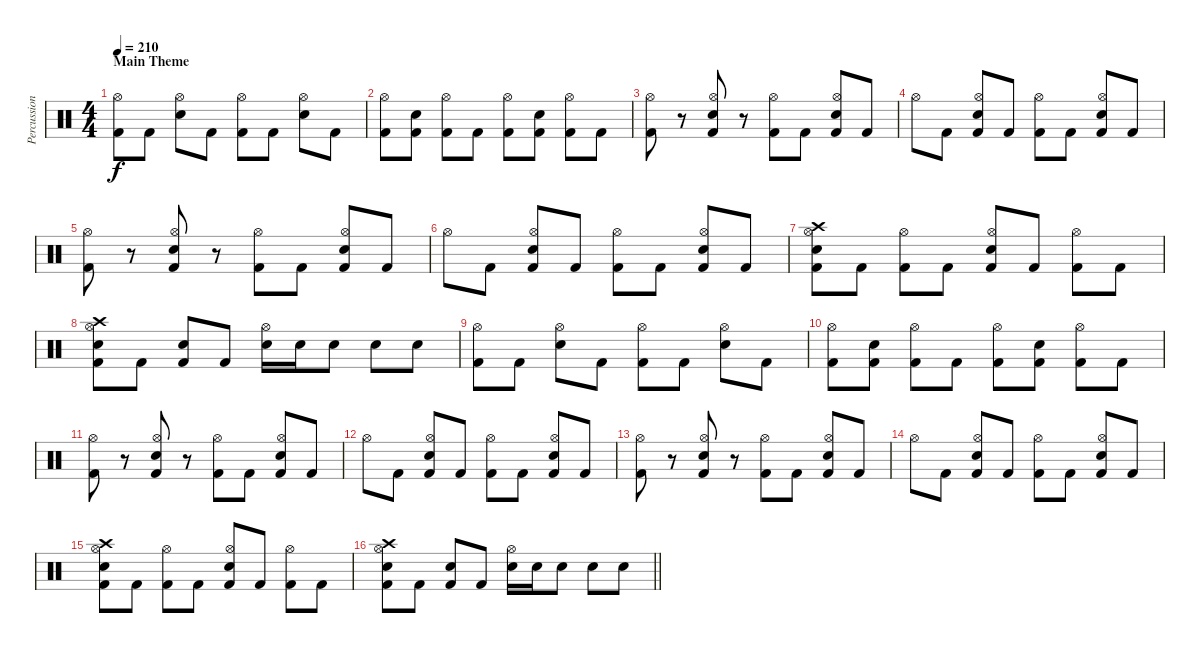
\track ("Percussion" "Percussion") {instrument percussion}
\staff {score}
\articulation defaults
\ts (4 4)
\section ("" "Main Theme")
\tempo 210
\clef neutral
\ks c
("Kick (hit) 2" "Hi-Hat (open)").8{dy f} "Kick (hit) 2".8 ("Electric Snare (hit)" "Hi-Hat (open)").8 "Kick (hit) 2".8 ("Kick (hit) 2" "Hi-Hat (open)").8 "Kick (hit) 2".8 ("Electric Snare (hit)" "Hi-Hat (open)").8 "Kick (hit) 2".8 |
("Kick (hit) 2" "Hi-Hat (open)").8 ("Kick (hit) 2" "Electric Snare (hit)").8 ("Kick (hit) 2" "Hi-Hat (open)").8 "Kick (hit) 2".8 ("Kick (hit) 2" "Hi-Hat (open)").8 ("Kick (hit) 2" "Electric Snare (hit)").8 ("Kick (hit) 2" "Hi-Hat (open)").8 "Kick (hit) 2".8 |
("Kick (hit) 2" "Hi-Hat (open)").8 r.8 ("Kick (hit) 2" "Electric Snare (hit)" "Hi-Hat (open)").8 r.8 ("Kick (hit) 2" "Hi-Hat (open)").8 "Kick (hit) 2".8 ("Kick (hit) 2" "Electric Snare (hit)" "Hi-Hat (open)").8 "Kick (hit) 2".8 |
"Hi-Hat (open)".8 "Kick (hit) 2".8 ("Kick (hit) 2" "Electric Snare (hit)" "Hi-Hat (open)").8 "Kick (hit) 2".8 ("Kick (hit) 2" "Hi-Hat (open)").8 "Kick (hit) 2".8 ("Kick (hit) 2" "Electric Snare (hit)" "Hi-Hat (open)").8 "Kick (hit) 2".8 |
("Kick (hit) 2" "Hi-Hat (open)").8 r.8 ("Kick (hit) 2" "Electric Snare (hit)" "Hi-Hat (open)").8 r.8 ("Kick (hit) 2" "Hi-Hat (open)").8 "Kick (hit) 2".8 ("Kick (hit) 2" "Electric Snare (hit)" "Hi-Hat (open)").8 "Kick (hit) 2".8 |
"Hi-Hat (open)".8 "Kick (hit) 2".8 ("Kick (hit) 2" "Electric Snare (hit)" "Hi-Hat (open)").8 "Kick (hit) 2".8 ("Kick (hit) 2" "Hi-Hat (open)").8 "Kick (hit) 2".8 ("Kick (hit) 2" "Electric Snare (hit)" "Hi-Hat (open)").8 "Kick (hit) 2".8 |
("Kick (hit) 2" "Electric Snare (hit)" "Hi-Hat (open)" "Crash high (hit)").8 "Kick (hit) 2".8 ("Kick (hit) 2" "Hi-Hat (open)").8 "Kick (hit) 2".8 ("Kick (hit) 2" "Electric Snare (hit)" "Hi-Hat (open)").8 "Kick (hit) 2".8 ("Kick (hit) 2" "Hi-Hat (open)").8 "Kick (hit) 2".8 |
("Kick (hit) 2" "Electric Snare (hit)" "Hi-Hat (open)" "Crash high (hit)").8 "Kick (hit) 2".8 ("Kick (hit) 2" "Electric Snare (hit)").8 "Kick (hit) 2".8 ("Electric Snare (hit)" "Hi-Hat (open)").16 "Electric Snare (hit)".16 "Electric Snare (hit)".8 "Electric Snare (hit)".8 "Electric Snare (hit)".8 |
("Kick (hit) 2" "Hi-Hat (open)").8 "Kick (hit) 2".8 ("Electric Snare (hit)" "Hi-Hat (open)").8 "Kick (hit) 2".8 ("Kick (hit) 2" "Hi-Hat (open)").8 "Kick (hit) 2".8 ("Electric Snare (hit)" "Hi-Hat (open)").8 "Kick (hit) 2".8 |
("Kick (hit) 2" "Hi-Hat (open)").8 ("Kick (hit) 2" "Electric Snare (hit)").8 ("Kick (hit) 2" "Hi-Hat (open)").8 "Kick (hit) 2".8 ("Kick (hit) 2" "Hi-Hat (open)").8 ("Kick (hit) 2" "Electric Snare (hit)").8 ("Kick (hit) 2" "Hi-Hat (open)").8 "Kick (hit) 2".8 |
("Kick (hit) 2" "Hi-Hat (open)").8 r.8 ("Kick (hit) 2" "Electric Snare (hit)" "Hi-Hat (open)").8 r.8 ("Kick (hit) 2" "Hi-Hat (open)").8 "Kick (hit) 2".8 ("Kick (hit) 2" "Electric Snare (hit)" "Hi-Hat (open)").8 "Kick (hit) 2".8 |
"Hi-Hat (open)".8 "Kick (hit) 2".8 ("Kick (hit) 2" "Electric Snare (hit)" "Hi-Hat (open)").8 "Kick (hit) 2".8 ("Kick (hit) 2" "Hi-Hat (open)").8 "Kick (hit) 2".8 ("Kick (hit) 2" "Electric Snare (hit)" "Hi-Hat (open)").8 "Kick (hit) 2".8 |
("Kick (hit) 2" "Hi-Hat (open)").8 r.8 ("Kick (hit) 2" "Electric Snare (hit)" "Hi-Hat (open)").8 r.8 ("Kick (hit) 2" "Hi-Hat (open)").8 "Kick (hit) 2".8 ("Kick (hit) 2" "Electric Snare (hit)" "Hi-Hat (open)").8 "Kick (hit) 2".8 |
"Hi-Hat (open)".8 "Kick (hit) 2".8 ("Kick (hit) 2" "Electric Snare (hit)" "Hi-Hat (open)").8 "Kick (hit) 2".8 ("Kick (hit) 2" "Hi-Hat (open)").8 "Kick (hit) 2".8 ("Kick (hit) 2" "Electric Snare (hit)" "Hi-Hat (open)").8 "Kick (hit) 2".8 |
("Kick (hit) 2" "Electric Snare (hit)" "Hi-Hat (open)" "Crash high (hit)").8 "Kick (hit) 2".8 ("Kick (hit) 2" "Hi-Hat (open)").8 "Kick (hit) 2".8 ("Kick (hit) 2" "Electric Snare (hit)" "Hi-Hat (open)").8 "Kick (hit) 2".8 ("Kick (hit) 2" "Hi-Hat (open)").8 "Kick (hit) 2".8 |
\barLineRight lightlight
("Kick (hit) 2" "Electric Snare (hit)" "Hi-Hat (open)" "Crash high (hit)").8 "Kick (hit) 2".8 ("Kick (hit) 2" "Electric Snare (hit)").8 "Kick (hit) 2".8 ("Electric Snare (hit)" "Hi-Hat (open)").16 "Electric Snare (hit)".16 "Electric Snare (hit)".8 "Electric Snare (hit)".8 "Electric Snare (hit)".8
